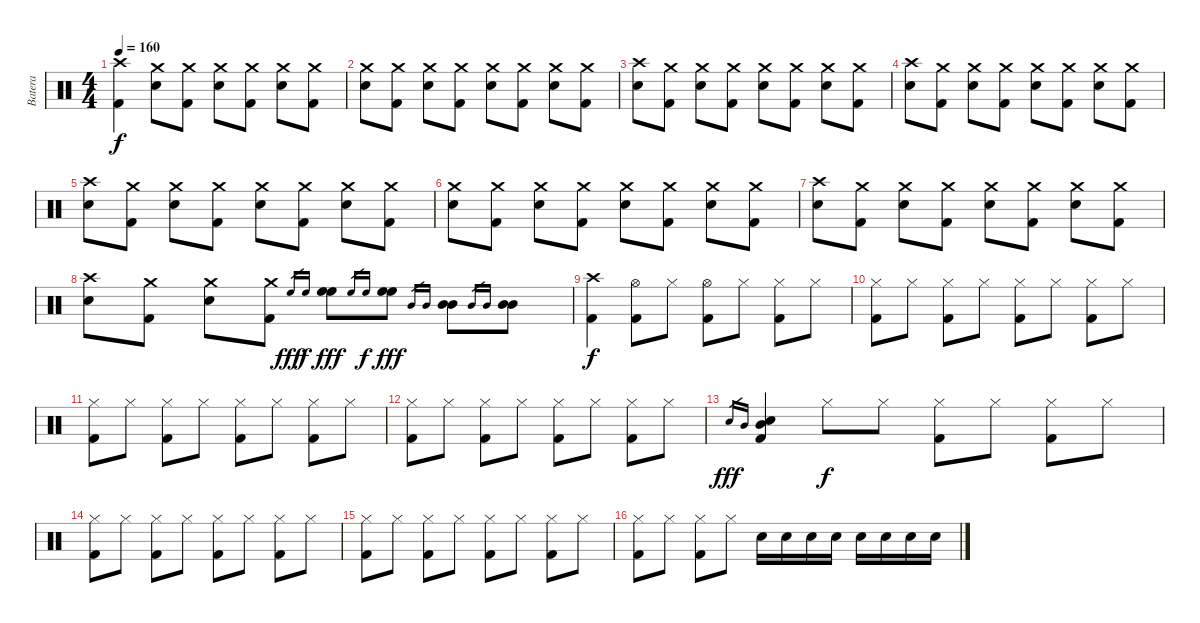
\track ("Batera" "Batera") {instrument percussion}
\staff {score}
\articulation defaults
\ts (4 4)
\tempo 160
\clef neutral
\ks c
("Crash high (hit)" "Kick (hit) 2").4{dy f} ("Crash medium (hit)" "Electric Snare (hit)").8 ("Crash medium (hit)" "Kick (hit) 2").8 ("Crash medium (hit)" "Electric Snare (hit)").8 ("Crash medium (hit)" "Kick (hit) 2").8 ("Crash medium (hit)" "Electric Snare (hit)").8 ("Crash medium (hit)" "Kick (hit) 2").8 |
("Crash medium (hit)" "Electric Snare (hit)").8 ("Crash medium (hit)" "Kick (hit) 2").8 ("Crash medium (hit)" "Electric Snare (hit)").8 ("Crash medium (hit)" "Kick (hit) 2").8 ("Crash medium (hit)" "Electric Snare (hit)").8 ("Crash medium (hit)" "Kick (hit) 2").8 ("Crash medium (hit)" "Electric Snare (hit)").8 ("Crash medium (hit)" "Kick (hit) 2").8 |
("Crash high (hit)" "Electric Snare (hit)").8 ("Crash medium (hit)" "Kick (hit) 2").8 ("Crash medium (hit)" "Electric Snare (hit)").8 ("Crash medium (hit)" "Kick (hit) 2").8 ("Crash medium (hit)" "Electric Snare (hit)").8 ("Crash medium (hit)" "Kick (hit) 2").8 ("Crash medium (hit)" "Electric Snare (hit)").8 ("Crash medium (hit)" "Kick (hit) 2").8 |
("Crash high (hit)" "Electric Snare (hit)").8 ("Crash medium (hit)" "Kick (hit) 2").8 ("Crash medium (hit)" "Electric Snare (hit)").8 ("Crash medium (hit)" "Kick (hit) 2").8 ("Crash medium (hit)" "Electric Snare (hit)").8 ("Crash medium (hit)" "Kick (hit) 2").8 ("Crash medium (hit)" "Electric Snare (hit)").8 ("Crash medium (hit)" "Kick (hit) 2").8 |
("Crash high (hit)" "Electric Snare (hit)").8 ("Crash medium (hit)" "Kick (hit) 2").8 ("Crash medium (hit)" "Electric Snare (hit)").8 ("Crash medium (hit)" "Kick (hit) 2").8 ("Crash medium (hit)" "Electric Snare (hit)").8 ("Crash medium (hit)" "Kick (hit) 2").8 ("Crash medium (hit)" "Electric Snare (hit)").8 ("Crash medium (hit)" "Kick (hit) 2").8 |
("Crash medium (hit)" "Electric Snare (hit)").8 ("Crash medium (hit)" "Kick (hit) 2").8 ("Crash medium (hit)" "Electric Snare (hit)").8 ("Crash medium (hit)" "Kick (hit) 2").8 ("Crash medium (hit)" "Electric Snare (hit)").8 ("Crash medium (hit)" "Kick (hit) 2").8 ("Crash medium (hit)" "Electric Snare (hit)").8 ("Crash medium (hit)" "Kick (hit) 2").8 |
("Crash high (hit)" "Electric Snare (hit)").8 ("Crash medium (hit)" "Kick (hit) 2").8 ("Crash medium (hit)" "Electric Snare (hit)").8 ("Crash medium (hit)" "Kick (hit) 2").8 ("Crash medium (hit)" "Electric Snare (hit)").8 ("Crash medium (hit)" "Kick (hit) 2").8 ("Crash medium (hit)" "Electric Snare (hit)").8 ("Crash medium (hit)" "Kick (hit) 2").8 |
("Crash high (hit)" "Electric Snare (hit)").8 ("Crash medium (hit)" "Kick (hit) 2").8 ("Crash medium (hit)" "Electric Snare (hit)").8 ("Crash medium (hit)" "Kick (hit) 2").8 "High Floor Tom (hit)".16{gr dy fff} "High Floor Tom (hit)".16{gr dy f} ("High Floor Tom (hit)" "High Floor Tom (hit)").8{dy fff} "High Floor Tom (hit)".16{gr} "High Floor Tom (hit)".16{gr dy f} ("High Floor Tom (hit)" "High Floor Tom (hit)").8{dy fff} "Mid Tom (hit)".16{gr} "Mid Tom (hit)".16{gr} ("Mid Tom (hit)" "Mid Tom (hit)").8 "Mid Tom (hit)".16{gr} "Mid Tom (hit)".16{gr} ("Mid Tom (hit)" "Mid Tom (hit)").8 |
("Crash high (hit)" "Kick (hit) 2").4{dy f} ("Hi-Hat (open)" "Kick (hit) 2").8 "Hi-Hat (closed)".8 ("Hi-Hat (open)" "Kick (hit) 2").8 "Hi-Hat (closed)".8 ("Hi-Hat (closed)" "Kick (hit) 2").8 "Hi-Hat (closed)".8 |
("Hi-Hat (closed)" "Kick (hit) 2").8 "Hi-Hat (closed)".8 ("Hi-Hat (closed)" "Kick (hit) 2").8 "Hi-Hat (closed)".8 ("Hi-Hat (closed)" "Kick (hit) 2").8 "Hi-Hat (closed)".8 ("Hi-Hat (closed)" "Kick (hit) 2").8 "Hi-Hat (closed)".8 |
("Hi-Hat (closed)" "Kick (hit) 2").8 "Hi-Hat (closed)".8 ("Hi-Hat (closed)" "Kick (hit) 2").8 "Hi-Hat (closed)".8 ("Hi-Hat (closed)" "Kick (hit) 2").8 "Hi-Hat (closed)".8 ("Hi-Hat (closed)" "Kick (hit) 2").8 "Hi-Hat (closed)".8 |
("Hi-Hat (closed)" "Kick (hit) 2").8 "Hi-Hat (closed)".8 ("Hi-Hat (closed)" "Kick (hit) 2").8 "Hi-Hat (closed)".8 ("Hi-Hat (closed)" "Kick (hit) 2").8 "Hi-Hat (closed)".8 ("Hi-Hat (closed)" "Kick (hit) 2").8 "Hi-Hat (closed)".8 |
"Electric Snare (hit)".16{gr dy fff} "Mid Tom (hit)".16{gr} ("Electric Snare (hit)" "Mid Tom (hit)" "Kick (hit) 2").4 "Hi-Hat (closed)".8{dy f} "Hi-Hat (closed)".8 ("Hi-Hat (closed)" "Kick (hit) 2").8 "Hi-Hat (closed)".8 ("Hi-Hat (closed)" "Kick (hit) 2").8 "Hi-Hat (closed)".8 |
("Hi-Hat (closed)" "Kick (hit) 2").8 "Hi-Hat (closed)".8 ("Hi-Hat (closed)" "Kick (hit) 2").8 "Hi-Hat (closed)".8 ("Hi-Hat (closed)" "Kick (hit) 2").8 "Hi-Hat (closed)".8 ("Hi-Hat (closed)" "Kick (hit) 2").8 "Hi-Hat (closed)".8 |
("Hi-Hat (closed)" "Kick (hit) 2").8 "Hi-Hat (closed)".8 ("Hi-Hat (closed)" "Kick (hit) 2").8 "Hi-Hat (closed)".8 ("Hi-Hat (closed)" "Kick (hit) 2").8 "Hi-Hat (closed)".8 ("Hi-Hat (closed)" "Kick (hit) 2").8 "Hi-Hat (closed)".8 |
("Hi-Hat (closed)" "Kick (hit) 2").8 "Hi-Hat (closed)".8 ("Hi-Hat (closed)" "Kick (hit) 2").8 "Hi-Hat (closed)".8 "Electric Snare (hit)".16 "Electric Snare (hit)".16 "Electric Snare (hit)".16 "Electric Snare (hit)".16 "Electric Snare (hit)".16 "Electric Snare (hit)".16 "Electric Snare (hit)".16 "Electric Snare (hit)".16
